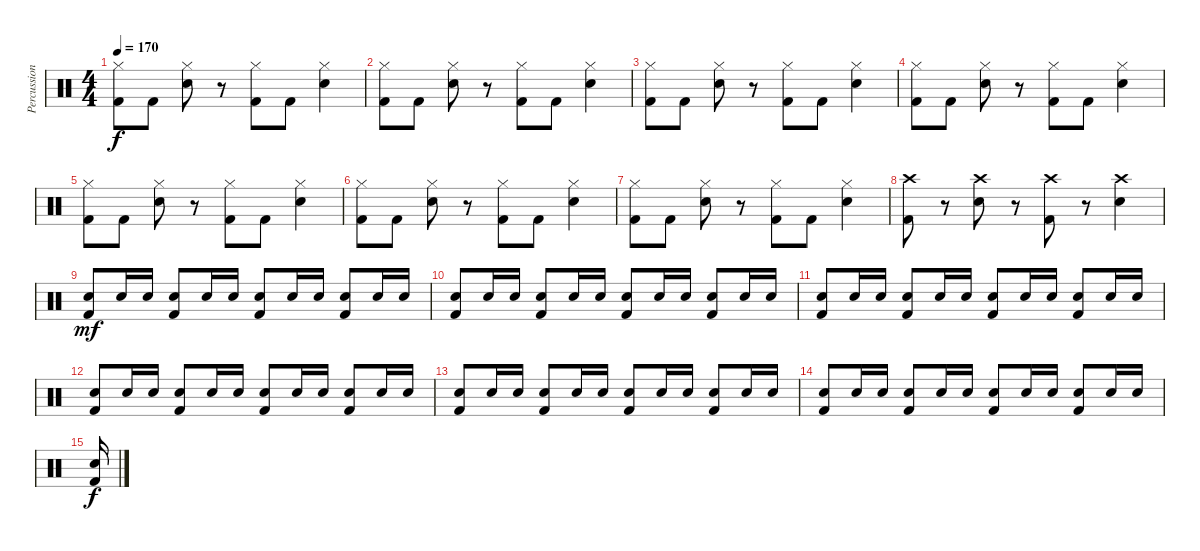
\track ("Percussion" "Percussion") {instrument percussion}
\staff {score}
\articulation defaults
\ts (4 4)
\tempo 170
\clef neutral
\ks c
("Hi-Hat (closed)" "Kick (hit) 2").8{dy f} "Kick (hit) 2".8 ("Hi-Hat (closed)" "Snare (hit) 2").8 r.8 ("Hi-Hat (closed)" "Kick (hit) 2").8 "Kick (hit) 2".8 ("Hi-Hat (closed)" "Snare (hit) 2").4 |
("Hi-Hat (closed)" "Kick (hit) 2").8 "Kick (hit) 2".8 ("Hi-Hat (closed)" "Snare (hit) 2").8 r.8 ("Hi-Hat (closed)" "Kick (hit) 2").8 "Kick (hit) 2".8 ("Hi-Hat (closed)" "Snare (hit) 2").4 |
("Hi-Hat (closed)" "Kick (hit) 2").8 "Kick (hit) 2".8 ("Hi-Hat (closed)" "Snare (hit) 2").8 r.8 ("Hi-Hat (closed)" "Kick (hit) 2").8 "Kick (hit) 2".8 ("Hi-Hat (closed)" "Snare (hit) 2").4 |
("Hi-Hat (closed)" "Kick (hit) 2").8 "Kick (hit) 2".8 ("Hi-Hat (closed)" "Snare (hit) 2").8 r.8 ("Hi-Hat (closed)" "Kick (hit) 2").8 "Kick (hit) 2".8 ("Hi-Hat (closed)" "Snare (hit) 2").4 |
("Hi-Hat (closed)" "Kick (hit) 2").8 "Kick (hit) 2".8 ("Hi-Hat (closed)" "Snare (hit) 2").8 r.8 ("Hi-Hat (closed)" "Kick (hit) 2").8 "Kick (hit) 2".8 ("Hi-Hat (closed)" "Snare (hit) 2").4 |
("Hi-Hat (closed)" "Kick (hit) 2").8 "Kick (hit) 2".8 ("Hi-Hat (closed)" "Snare (hit) 2").8 r.8 ("Hi-Hat (closed)" "Kick (hit) 2").8 "Kick (hit) 2".8 ("Hi-Hat (closed)" "Snare (hit) 2").4 |
("Hi-Hat (closed)" "Kick (hit) 2").8 "Kick (hit) 2".8 ("Hi-Hat (closed)" "Snare (hit) 2").8 r.8 ("Hi-Hat (closed)" "Kick (hit) 2").8 "Kick (hit) 2".8 ("Hi-Hat (closed)" "Snare (hit) 2").4 |
("Crash high (hit)" "Kick (hit) 2").8 r.8 ("Crash high (hit)" "Snare (hit) 2").8 r.8 ("Crash high (hit)" "Kick (hit) 2").8 r.8 ("Crash high (hit)" "Snare (hit) 2").4 |
("Snare (hit) 2" "Kick (hit) 2").8{dy mf} "Snare (hit) 2".16 "Snare (hit) 2".16 ("Snare (hit) 2" "Kick (hit) 2").8 "Snare (hit) 2".16 "Snare (hit) 2".16 ("Snare (hit) 2" "Kick (hit) 2").8 "Snare (hit) 2".16 "Snare (hit) 2".16 ("Snare (hit) 2" "Kick (hit) 2").8 "Snare (hit) 2".16 "Snare (hit) 2".16 |
("Snare (hit) 2" "Kick (hit) 2").8 "Snare (hit) 2".16 "Snare (hit) 2".16 ("Snare (hit) 2" "Kick (hit) 2").8 "Snare (hit) 2".16 "Snare (hit) 2".16 ("Snare (hit) 2" "Kick (hit) 2").8 "Snare (hit) 2".16 "Snare (hit) 2".16 ("Snare (hit) 2" "Kick (hit) 2").8 "Snare (hit) 2".16 "Snare (hit) 2".16 |
("Snare (hit) 2" "Kick (hit) 2").8 "Snare (hit) 2".16 "Snare (hit) 2".16 ("Snare (hit) 2" "Kick (hit) 2").8 "Snare (hit) 2".16 "Snare (hit) 2".16 ("Snare (hit) 2" "Kick (hit) 2").8 "Snare (hit) 2".16 "Snare (hit) 2".16 ("Snare (hit) 2" "Kick (hit) 2").8 "Snare (hit) 2".16 "Snare (hit) 2".16 |
("Snare (hit) 2" "Kick (hit) 2").8 "Snare (hit) 2".16 "Snare (hit) 2".16 ("Snare (hit) 2" "Kick (hit) 2").8 "Snare (hit) 2".16 "Snare (hit) 2".16 ("Snare (hit) 2" "Kick (hit) 2").8 "Snare (hit) 2".16 "Snare (hit) 2".16 ("Snare (hit) 2" "Kick (hit) 2").8 "Snare (hit) 2".16 "Snare (hit) 2".16 |
("Snare (hit) 2" "Kick (hit) 2").8 "Snare (hit) 2".16 "Snare (hit) 2".16 ("Snare (hit) 2" "Kick (hit) 2").8 "Snare (hit) 2".16 "Snare (hit) 2".16 ("Snare (hit) 2" "Kick (hit) 2").8 "Snare (hit) 2".16 "Snare (hit) 2".16 ("Snare (hit) 2" "Kick (hit) 2").8 "Snare (hit) 2".16 "Snare (hit) 2".16 |
("Snare (hit) 2" "Kick (hit) 2").8 "Snare (hit) 2".16 "Snare (hit) 2".16 ("Snare (hit) 2" "Kick (hit) 2").8 "Snare (hit) 2".16 "Snare (hit) 2".16 ("Snare (hit) 2" "Kick (hit) 2").8 "Snare (hit) 2".16 "Snare (hit) 2".16 ("Snare (hit) 2" "Kick (hit) 2").8 "Snare (hit) 2".16 "Snare (hit) 2".16 |
("Snare (hit) 2" "Kick (hit) 2").16{dy f}
